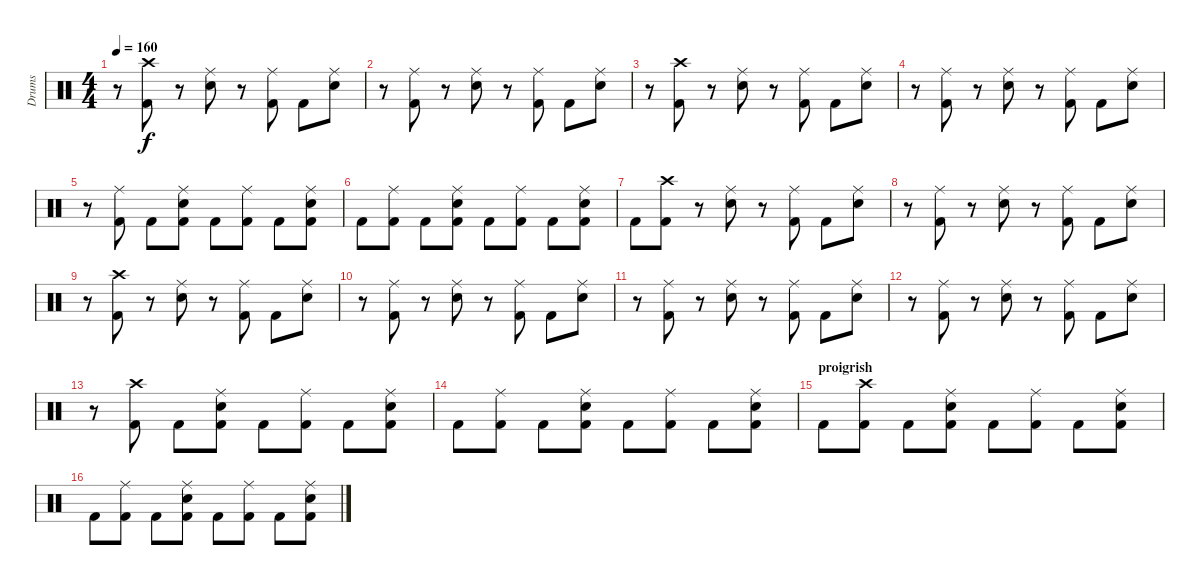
\track ("Drums" "Drums") {instrument percussion}
\staff {score}
\articulation defaults
\ts (4 4)
\tempo 160
\clef neutral
\ks c
r.8{dy f} ("Kick (hit) 2" "Crash high (hit)").8 r.8 ("Snare (hit) 2" "Ride (middle)").8 r.8 ("Kick (hit) 2" "Ride (middle)").8 "Kick (hit) 2".8 ("Snare (hit) 2" "Ride (middle)").8 |
r.8 ("Kick (hit) 2" "Ride (middle)").8 r.8 ("Snare (hit) 2" "Ride (middle)").8 r.8 ("Kick (hit) 2" "Ride (middle)").8 "Kick (hit) 2".8 ("Snare (hit) 2" "Ride (middle)").8 |
r.8 ("Kick (hit) 2" "Crash high (hit)").8 r.8 ("Snare (hit) 2" "Ride (middle)").8 r.8 ("Kick (hit) 2" "Ride (middle)").8 "Kick (hit) 2".8 ("Snare (hit) 2" "Ride (middle)").8 |
r.8 ("Kick (hit) 2" "Ride (middle)").8 r.8 ("Snare (hit) 2" "Ride (middle)").8 r.8 ("Kick (hit) 2" "Ride (middle)").8 "Kick (hit) 2".8 ("Snare (hit) 2" "Ride (middle)").8 |
r.8 ("Kick (hit) 2" "Ride (middle)").8 "Kick (hit) 2".8 ("Snare (hit) 2" "Kick (hit) 2" "Ride (middle)").8 "Kick (hit) 2".8 ("Kick (hit) 2" "Ride (middle)").8 "Kick (hit) 2".8 ("Snare (hit) 2" "Kick (hit) 2" "Ride (middle)").8 |
"Kick (hit) 2".8 ("Kick (hit) 2" "Ride (middle)").8 "Kick (hit) 2".8 ("Snare (hit) 2" "Kick (hit) 2" "Ride (middle)").8 "Kick (hit) 2".8 ("Kick (hit) 2" "Ride (middle)").8 "Kick (hit) 2".8 ("Snare (hit) 2" "Kick (hit) 2" "Ride (middle)").8 |
"Kick (hit) 2".8 ("Kick (hit) 2" "Crash high (hit)").8 r.8 ("Snare (hit) 2" "Ride (middle)").8 r.8 ("Kick (hit) 2" "Ride (middle)").8 "Kick (hit) 2".8 ("Snare (hit) 2" "Ride (middle)").8 |
r.8 ("Kick (hit) 2" "Ride (middle)").8 r.8 ("Snare (hit) 2" "Ride (middle)").8 r.8 ("Kick (hit) 2" "Ride (middle)").8 "Kick (hit) 2".8 ("Snare (hit) 2" "Ride (middle)").8 |
r.8 ("Kick (hit) 2" "Crash high (hit)").8 r.8 ("Snare (hit) 2" "Ride (middle)").8 r.8 ("Kick (hit) 2" "Ride (middle)").8 "Kick (hit) 2".8 ("Snare (hit) 2" "Ride (middle)").8 |
r.8 ("Kick (hit) 2" "Ride (middle)").8 r.8 ("Snare (hit) 2" "Ride (middle)").8 r.8 ("Kick (hit) 2" "Ride (middle)").8 "Kick (hit) 2".8 ("Snare (hit) 2" "Ride (middle)").8 |
r.8 ("Kick (hit) 2" "Ride (middle)").8 r.8 ("Snare (hit) 2" "Ride (middle)").8 r.8 ("Kick (hit) 2" "Ride (middle)").8 "Kick (hit) 2".8 ("Snare (hit) 2" "Ride (middle)").8 |
r.8 ("Kick (hit) 2" "Ride (middle)").8 r.8 ("Snare (hit) 2" "Ride (middle)").8 r.8 ("Kick (hit) 2" "Ride (middle)").8 "Kick (hit) 2".8 ("Snare (hit) 2" "Ride (middle)").8 |
r.8 ("Kick (hit) 2" "Crash high (hit)").8 "Kick (hit) 2".8 ("Snare (hit) 2" "Kick (hit) 2" "Ride (middle)").8 "Kick (hit) 2".8 ("Kick (hit) 2" "Ride (middle)").8 "Kick (hit) 2".8 ("Snare (hit) 2" "Kick (hit) 2" "Ride (middle)").8 |
"Kick (hit) 2".8 ("Kick (hit) 2" "Ride (middle)").8 "Kick (hit) 2".8 ("Snare (hit) 2" "Kick (hit) 2" "Ride (middle)").8 "Kick (hit) 2".8 ("Kick (hit) 2" "Ride (middle)").8 "Kick (hit) 2".8 ("Snare (hit) 2" "Kick (hit) 2" "Ride (middle)").8 |
\section ("" "proigrish")
"Kick (hit) 2".8 ("Kick (hit) 2" "Crash high (hit)").8 "Kick (hit) 2".8 ("Snare (hit) 2" "Kick (hit) 2" "Ride (middle)").8 "Kick (hit) 2".8 ("Kick (hit) 2" "Ride (middle)").8 "Kick (hit) 2".8 ("Snare (hit) 2" "Kick (hit) 2" "Ride (middle)").8 |
"Kick (hit) 2".8 ("Kick (hit) 2" "Ride (middle)").8 "Kick (hit) 2".8 ("Snare (hit) 2" "Kick (hit) 2" "Ride (middle)").8 "Kick (hit) 2".8 ("Kick (hit) 2" "Ride (middle)").8 "Kick (hit) 2".8 ("Snare (hit) 2" "Kick (hit) 2" "Ride (middle)").8
